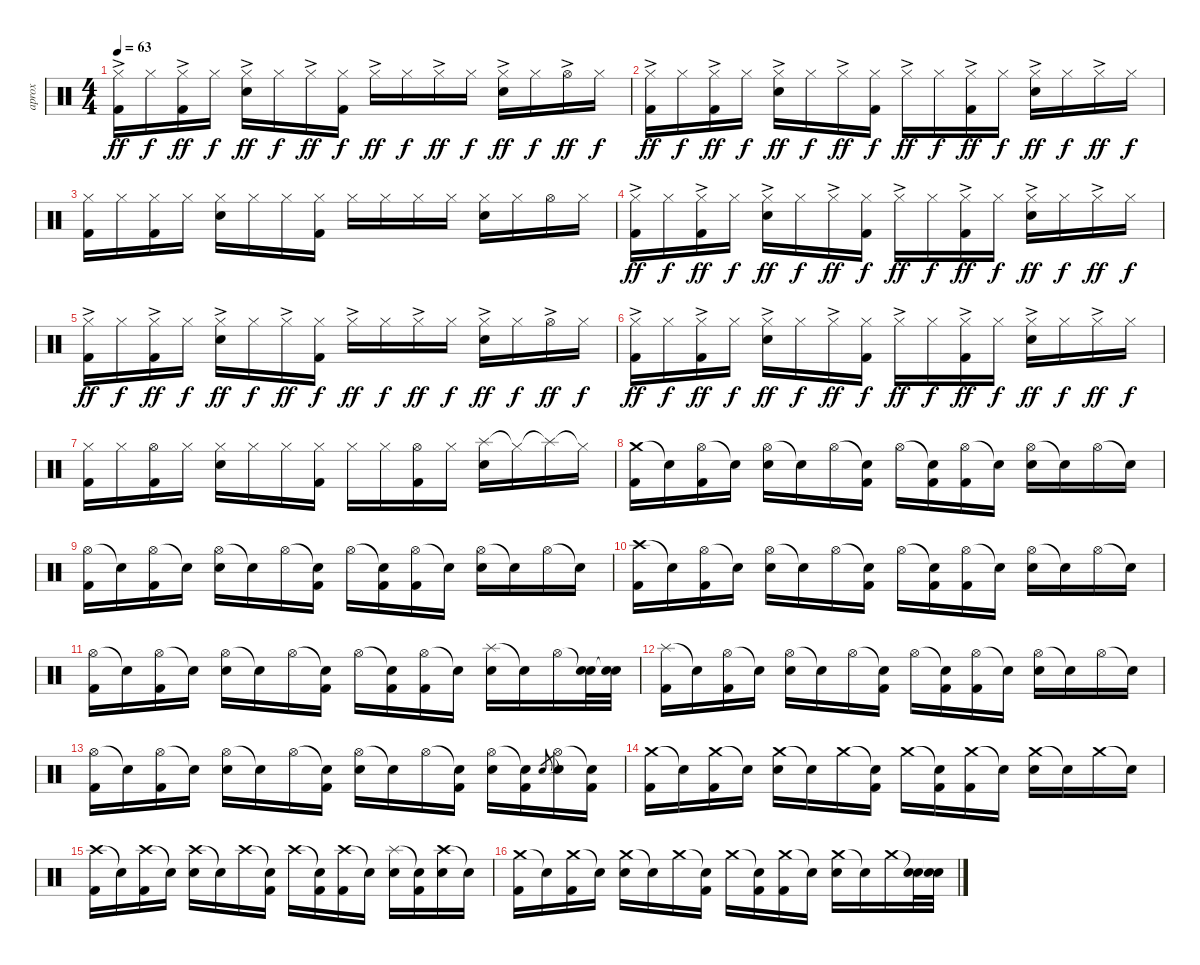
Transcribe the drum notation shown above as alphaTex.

\track ("aprox" "aprox") {instrument percussion}
\staff {score}
\articulation defaults
\ts (4 4)
\tempo 63
\clef neutral
\ks c
("Hi-Hat (closed)"{ac} "Kick (hit) 2").16{dy ff} "Hi-Hat (closed)".16{dy f} ("Hi-Hat (closed)"{ac} "Kick (hit) 2").16{dy ff} "Hi-Hat (closed)".16{dy f} ("Hi-Hat (closed)"{ac} "Electric Snare (hit)").16{dy ff} "Hi-Hat (closed)".16{dy f} "Hi-Hat (closed)"{ac}.16{dy ff} ("Hi-Hat (closed)" "Kick (hit) 2").16{dy f} "Hi-Hat (closed)"{ac}.16{dy ff} "Hi-Hat (closed)".16{dy f} "Hi-Hat (closed)"{ac}.16{dy ff} "Hi-Hat (closed)".16{dy f} ("Hi-Hat (closed)"{ac} "Electric Snare (hit)").16{dy ff} "Hi-Hat (closed)".16{dy f} "Hi-Hat (open)"{ac}.16{dy ff} "Hi-Hat (closed)".16{dy f} |
("Hi-Hat (closed)"{ac} "Kick (hit) 2").16{dy ff} "Hi-Hat (closed)".16{dy f} ("Hi-Hat (closed)"{ac} "Kick (hit) 2").16{dy ff} "Hi-Hat (closed)".16{dy f} ("Hi-Hat (closed)"{ac} "Electric Snare (hit)").16{dy ff} "Hi-Hat (closed)".16{dy f} "Hi-Hat (closed)"{ac}.16{dy ff} ("Hi-Hat (closed)" "Kick (hit) 2").16{dy f} "Hi-Hat (closed)"{ac}.16{dy ff} "Hi-Hat (closed)".16{dy f} ("Hi-Hat (closed)"{ac} "Kick (hit) 2").16{dy ff} "Hi-Hat (closed)".16{dy f} ("Hi-Hat (closed)"{ac} "Electric Snare (hit)").16{dy ff} "Hi-Hat (closed)".16{dy f} "Hi-Hat (closed)"{ac}.16{dy ff} "Hi-Hat (closed)".16{dy f} |
("Hi-Hat (closed)" "Kick (hit) 2").16 "Hi-Hat (closed)".16 ("Hi-Hat (closed)" "Kick (hit) 2").16 "Hi-Hat (closed)".16 ("Hi-Hat (closed)" "Electric Snare (hit)").16 "Hi-Hat (closed)".16 "Hi-Hat (closed)".16 ("Hi-Hat (closed)" "Kick (hit) 2").16 "Hi-Hat (closed)".16 "Hi-Hat (closed)".16 "Hi-Hat (closed)".16 "Hi-Hat (closed)".16 ("Hi-Hat (closed)" "Electric Snare (hit)").16 "Hi-Hat (closed)".16 "Hi-Hat (open)".16 "Hi-Hat (closed)".16 |
("Hi-Hat (closed)"{ac} "Kick (hit) 2").16{dy ff} "Hi-Hat (closed)".16{dy f} ("Hi-Hat (closed)"{ac} "Kick (hit) 2").16{dy ff} "Hi-Hat (closed)".16{dy f} ("Hi-Hat (closed)"{ac} "Electric Snare (hit)").16{dy ff} "Hi-Hat (closed)".16{dy f} "Hi-Hat (closed)"{ac}.16{dy ff} ("Hi-Hat (closed)" "Kick (hit) 2").16{dy f} "Hi-Hat (closed)"{ac}.16{dy ff} "Hi-Hat (closed)".16{dy f} ("Hi-Hat (closed)"{ac} "Kick (hit) 2").16{dy ff} "Hi-Hat (closed)".16{dy f} ("Hi-Hat (closed)"{ac} "Electric Snare (hit)").16{dy ff} "Hi-Hat (closed)".16{dy f} "Hi-Hat (closed)"{ac}.16{dy ff} "Hi-Hat (closed)".16{dy f} |
("Hi-Hat (closed)"{ac} "Kick (hit) 2").16{dy ff} "Hi-Hat (closed)".16{dy f} ("Hi-Hat (closed)"{ac} "Kick (hit) 2").16{dy ff} "Hi-Hat (closed)".16{dy f} ("Hi-Hat (closed)"{ac} "Electric Snare (hit)").16{dy ff} "Hi-Hat (closed)".16{dy f} "Hi-Hat (closed)"{ac}.16{dy ff} ("Hi-Hat (closed)" "Kick (hit) 2").16{dy f} "Hi-Hat (closed)"{ac}.16{dy ff} "Hi-Hat (closed)".16{dy f} "Hi-Hat (closed)"{ac}.16{dy ff} "Hi-Hat (closed)".16{dy f} ("Hi-Hat (closed)"{ac} "Electric Snare (hit)").16{dy ff} "Hi-Hat (closed)".16{dy f} "Hi-Hat (open)"{ac}.16{dy ff} "Hi-Hat (closed)".16{dy f} |
("Hi-Hat (closed)"{ac} "Kick (hit) 2").16{dy ff} "Hi-Hat (closed)".16{dy f} ("Hi-Hat (closed)"{ac} "Kick (hit) 2").16{dy ff} "Hi-Hat (closed)".16{dy f} ("Hi-Hat (closed)"{ac} "Electric Snare (hit)").16{dy ff} "Hi-Hat (closed)".16{dy f} "Hi-Hat (closed)"{ac}.16{dy ff} ("Hi-Hat (closed)" "Kick (hit) 2").16{dy f} "Hi-Hat (closed)"{ac}.16{dy ff} "Hi-Hat (closed)".16{dy f} ("Hi-Hat (closed)"{ac} "Kick (hit) 2").16{dy ff} "Hi-Hat (closed)".16{dy f} ("Hi-Hat (closed)"{ac} "Electric Snare (hit)").16{dy ff} "Hi-Hat (closed)".16{dy f} "Hi-Hat (closed)"{ac}.16{dy ff} "Hi-Hat (closed)".16{dy f} |
("Hi-Hat (closed)" "Kick (hit) 2").16 "Hi-Hat (closed)".16 ("Hi-Hat (open)" "Kick (hit) 2").16 "Hi-Hat (closed)".16 ("Hi-Hat (closed)" "Electric Snare (hit)").16 "Hi-Hat (closed)".16 "Hi-Hat (closed)".16 ("Hi-Hat (closed)" "Kick (hit) 2").16 "Hi-Hat (closed)".16 "Hi-Hat (closed)".16 ("Hi-Hat (open)" "Kick (hit) 2").16 "Hi-Hat (closed)".16 ("Splash (hit)" "Electric Snare (hit)").16 "Hi-Hat (closed)"{t}.16 "Splash (hit)"{t}.16 "Hi-Hat (closed)"{t}.16 |
("Crash medium (hit)" "Kick (hit) 2").16 "Snare (hit)"{t}.16 ("Hi-Hat (open)" "Kick (hit) 2").16 "Snare (hit)"{t}.16 ("Hi-Hat (open)" "Electric Snare (hit)").16 "Snare (hit)"{t}.16 "Hi-Hat (open)".16 ("Snare (hit)"{t} "Kick (hit) 2").16 "Hi-Hat (open)".16 ("Snare (hit)"{t} "Kick (hit) 2").16 ("Hi-Hat (open)" "Kick (hit) 2").16 "Snare (hit)"{t}.16 ("Hi-Hat (open)" "Electric Snare (hit)").16 "Snare (hit)"{t}.16 "Hi-Hat (open)".16 "Snare (hit)"{t}.16 |
("Hi-Hat (open)" "Kick (hit) 2").16 "Snare (hit)"{t}.16 ("Hi-Hat (open)" "Kick (hit) 2").16 "Snare (hit)"{t}.16 ("Hi-Hat (open)" "Electric Snare (hit)").16 "Snare (hit)"{t}.16 "Hi-Hat (open)".16 ("Snare (hit)"{t} "Kick (hit) 2").16 "Hi-Hat (open)".16 ("Snare (hit)"{t} "Kick (hit) 2").16 ("Hi-Hat (open)" "Kick (hit) 2").16 "Snare (hit)"{t}.16 ("Hi-Hat (open)" "Electric Snare (hit)").16 "Snare (hit)"{t}.16 "Hi-Hat (open)".16 "Snare (hit)"{t}.16 |
("Crash high (hit)" "Kick (hit) 2").16 "Snare (hit)"{t}.16 ("Hi-Hat (open)" "Kick (hit) 2").16 "Snare (hit)"{t}.16 ("Hi-Hat (open)" "Electric Snare (hit)").16 "Snare (hit)"{t}.16 "Hi-Hat (open)".16 ("Snare (hit)"{t} "Kick (hit) 2").16 "Hi-Hat (open)".16 ("Snare (hit)"{t} "Kick (hit) 2").16 ("Hi-Hat (open)" "Kick (hit) 2").16 "Snare (hit)"{t}.16 ("Hi-Hat (open)" "Electric Snare (hit)").16 "Snare (hit)"{t}.16 "Hi-Hat (open)".16 "Snare (hit)"{t}.16 |
("Hi-Hat (open)" "Kick (hit) 2").16 "Snare (hit)"{t}.16 ("Hi-Hat (open)" "Kick (hit) 2").16 "Snare (hit)"{t}.16 ("Hi-Hat (open)" "Electric Snare (hit)").16 "Snare (hit)"{t}.16 "Hi-Hat (open)".16 ("Snare (hit)"{t} "Kick (hit) 2").16 "Hi-Hat (open)".16 ("Snare (hit)"{t} "Kick (hit) 2").16 ("Hi-Hat (open)" "Kick (hit) 2").16 "Snare (hit)"{t}.16 ("Splash (hit)" "Electric Snare (hit)").16 "Snare (hit)"{t}.16 "Hi-Hat (open)".16 ("Snare (hit)"{t} "Electric Snare (hit)").32 ("Snare (hit)"{t} "Electric Snare (hit)").32 |
("Splash (hit)" "Kick (hit) 2").16 "Snare (hit)"{t}.16 ("Hi-Hat (open)" "Kick (hit) 2").16 "Snare (hit)"{t}.16 ("Hi-Hat (open)" "Electric Snare (hit)").16 "Snare (hit)"{t}.16 "Hi-Hat (open)".16 ("Snare (hit)"{t} "Kick (hit) 2").16 "Hi-Hat (open)".16 ("Snare (hit)"{t} "Kick (hit) 2").16 ("Hi-Hat (open)" "Kick (hit) 2").16 "Snare (hit)"{t}.16 ("Hi-Hat (open)" "Electric Snare (hit)").16 "Snare (hit)"{t}.16 "Hi-Hat (open)".16 "Snare (hit)"{t}.16 |
("Hi-Hat (open)" "Kick (hit) 2").16 "Snare (hit)"{t}.16 ("Hi-Hat (open)" "Kick (hit) 2").16 "Snare (hit)"{t}.16 ("Hi-Hat (open)" "Electric Snare (hit)").16 "Snare (hit)"{t}.16 "Hi-Hat (open)".16 ("Snare (hit)"{t} "Kick (hit) 2").16 ("Hi-Hat (open)" "Electric Snare (hit)").16 "Snare (hit)"{t}.16 "Hi-Hat (open)".16 ("Snare (hit)"{t} "Kick (hit) 2").16 ("Hi-Hat (open)" "Electric Snare (hit)").16 ("Snare (hit)"{t} "Kick (hit) 2").16 "Electric Snare (hit)".8{gr} ("Hi-Hat (open)"{t} "Electric Snare (hit)").16 ("Snare (hit)"{t} "Kick (hit) 2").16 |
("Crash medium (hit)" "Kick (hit) 2").16 "Snare (hit)"{t}.16 ("Crash medium (hit)" "Kick (hit) 2").16 "Snare (hit)"{t}.16 ("Crash medium (hit)" "Electric Snare (hit)").16 "Snare (hit)"{t}.16 "Crash medium (hit)".16 ("Snare (hit)"{t} "Kick (hit) 2").16 "Crash medium (hit)".16 ("Snare (hit)"{t} "Kick (hit) 2").16 ("Crash medium (hit)" "Kick (hit) 2").16 "Snare (hit)"{t}.16 ("Crash medium (hit)" "Electric Snare (hit)").16 "Snare (hit)"{t}.16 "Crash medium (hit)".16 "Snare (hit)"{t}.16 |
("Crash high (hit)" "Kick (hit) 2").16 "Snare (hit)"{t}.16 ("Crash high (hit)" "Kick (hit) 2").16 "Snare (hit)"{t}.16 ("Crash high (hit)" "Electric Snare (hit)").16 "Snare (hit)"{t}.16 "Crash high (hit)".16 ("Snare (hit)"{t} "Kick (hit) 2").16 "Crash high (hit)".16 ("Snare (hit)"{t} "Kick (hit) 2").16 ("Crash high (hit)" "Kick (hit) 2").16 "Snare (hit)"{t}.16 ("Splash (hit)" "Electric Snare (hit)").16 ("Snare (hit)"{t} "Kick (hit) 2").16 ("Crash high (hit)" "Electric Snare (hit)").16 "Snare (hit)"{t}.16 |
("Crash medium (hit)" "Kick (hit) 2").16 "Snare (hit)"{t}.16 ("Crash medium (hit)" "Kick (hit) 2").16 "Snare (hit)"{t}.16 ("Crash medium (hit)" "Electric Snare (hit)").16 "Snare (hit)"{t}.16 "Crash medium (hit)".16 ("Snare (hit)"{t} "Kick (hit) 2").16 "Crash medium (hit)".16 ("Snare (hit)"{t} "Kick (hit) 2").16 ("Crash medium (hit)" "Kick (hit) 2").16 "Snare (hit)"{t}.16 ("Crash medium (hit)" "Electric Snare (hit)").16 "Snare (hit)"{t}.16 "Crash medium (hit)".16 ("Snare (hit)"{t} "Electric Snare (hit)").32 ("Snare (hit)"{t} "Electric Snare (hit)").32
